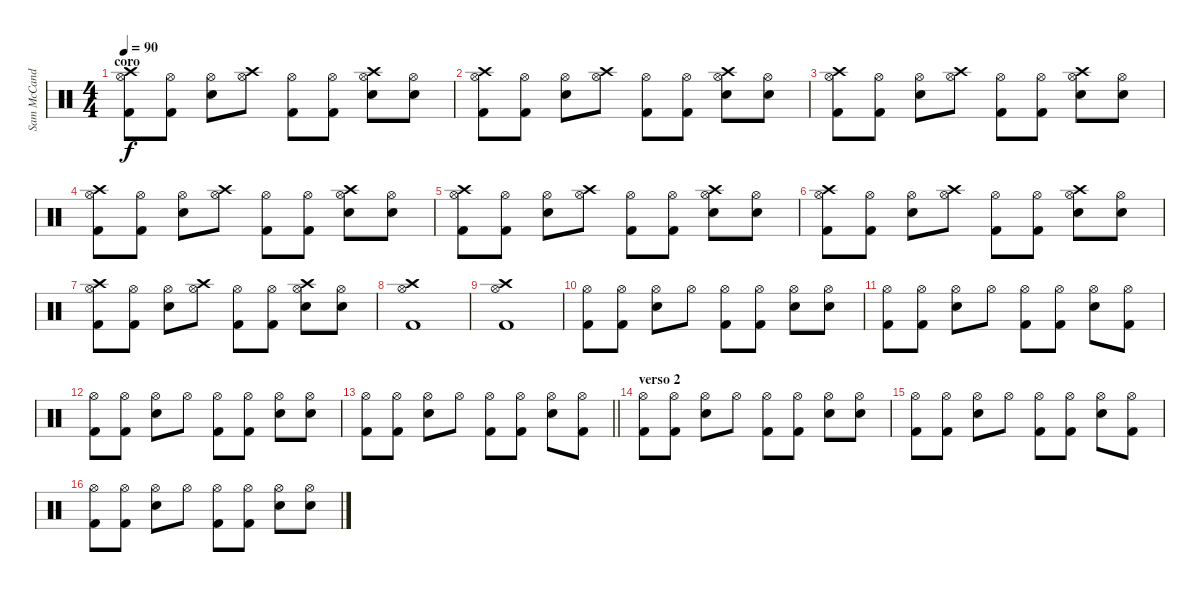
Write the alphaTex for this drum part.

\track ("Sam McCandless" "Sam McCand") {instrument percussion}
\staff {score}
\articulation defaults
\ts (4 4)
\section ("" "coro")
\tempo 90
\clef neutral
\ks c
("Crash high (hit)" "Hi-Hat (open)" "Kick (hit) 2").8{dy f} ("Hi-Hat (open)" "Kick (hit) 2").8 ("Hi-Hat (open)" "Electric Snare (hit)").8 ("Crash high (hit)" "Hi-Hat (open)").8 ("Hi-Hat (open)" "Kick (hit) 2").8 ("Hi-Hat (open)" "Kick (hit) 2").8 ("Crash high (hit)" "Hi-Hat (open)" "Electric Snare (hit)").8 ("Hi-Hat (open)" "Electric Snare (hit)").8 |
("Crash high (hit)" "Hi-Hat (open)" "Kick (hit) 2").8 ("Hi-Hat (open)" "Kick (hit) 2").8 ("Hi-Hat (open)" "Electric Snare (hit)").8 ("Crash high (hit)" "Hi-Hat (open)").8 ("Hi-Hat (open)" "Kick (hit) 2").8 ("Hi-Hat (open)" "Kick (hit) 2").8 ("Crash high (hit)" "Hi-Hat (open)" "Electric Snare (hit)").8 ("Hi-Hat (open)" "Electric Snare (hit)").8 |
("Crash high (hit)" "Hi-Hat (open)" "Kick (hit) 2").8 ("Hi-Hat (open)" "Kick (hit) 2").8 ("Hi-Hat (open)" "Electric Snare (hit)").8 ("Crash high (hit)" "Hi-Hat (open)").8 ("Hi-Hat (open)" "Kick (hit) 2").8 ("Hi-Hat (open)" "Kick (hit) 2").8 ("Crash high (hit)" "Hi-Hat (open)" "Electric Snare (hit)").8 ("Hi-Hat (open)" "Electric Snare (hit)").8 |
("Crash high (hit)" "Hi-Hat (open)" "Kick (hit) 2").8 ("Hi-Hat (open)" "Kick (hit) 2").8 ("Hi-Hat (open)" "Electric Snare (hit)").8 ("Crash high (hit)" "Hi-Hat (open)").8 ("Hi-Hat (open)" "Kick (hit) 2").8 ("Hi-Hat (open)" "Kick (hit) 2").8 ("Crash high (hit)" "Hi-Hat (open)" "Electric Snare (hit)").8 ("Hi-Hat (open)" "Electric Snare (hit)").8 |
("Crash high (hit)" "Hi-Hat (open)" "Kick (hit) 2").8 ("Hi-Hat (open)" "Kick (hit) 2").8 ("Hi-Hat (open)" "Electric Snare (hit)").8 ("Crash high (hit)" "Hi-Hat (open)").8 ("Hi-Hat (open)" "Kick (hit) 2").8 ("Hi-Hat (open)" "Kick (hit) 2").8 ("Crash high (hit)" "Hi-Hat (open)" "Electric Snare (hit)").8 ("Hi-Hat (open)" "Electric Snare (hit)").8 |
("Crash high (hit)" "Hi-Hat (open)" "Kick (hit) 2").8 ("Hi-Hat (open)" "Kick (hit) 2").8 ("Hi-Hat (open)" "Electric Snare (hit)").8 ("Crash high (hit)" "Hi-Hat (open)").8 ("Hi-Hat (open)" "Kick (hit) 2").8 ("Hi-Hat (open)" "Kick (hit) 2").8 ("Crash high (hit)" "Hi-Hat (open)" "Electric Snare (hit)").8 ("Hi-Hat (open)" "Electric Snare (hit)").8 |
("Crash high (hit)" "Hi-Hat (open)" "Kick (hit) 2").8 ("Hi-Hat (open)" "Kick (hit) 2").8 ("Hi-Hat (open)" "Electric Snare (hit)").8 ("Crash high (hit)" "Hi-Hat (open)").8 ("Hi-Hat (open)" "Kick (hit) 2").8 ("Hi-Hat (open)" "Kick (hit) 2").8 ("Crash high (hit)" "Hi-Hat (open)" "Electric Snare (hit)").8 ("Hi-Hat (open)" "Electric Snare (hit)").8 |
("Crash high (hit)" "Hi-Hat (open)" "Kick (hit) 2").1 |
("Crash high (hit)" "Hi-Hat (open)" "Kick (hit) 2").1 |
("Hi-Hat (open)" "Kick (hit) 2").8 ("Hi-Hat (open)" "Kick (hit) 2").8 ("Hi-Hat (open)" "Electric Snare (hit)").8 "Hi-Hat (open)".8 ("Hi-Hat (open)" "Kick (hit) 2").8 ("Hi-Hat (open)" "Kick (hit) 2").8 ("Hi-Hat (open)" "Electric Snare (hit)").8 ("Hi-Hat (open)" "Electric Snare (hit)").8 |
("Hi-Hat (open)" "Kick (hit) 2").8 ("Hi-Hat (open)" "Kick (hit) 2").8 ("Hi-Hat (open)" "Electric Snare (hit)").8 "Hi-Hat (open)".8 ("Hi-Hat (open)" "Kick (hit) 2").8 ("Hi-Hat (open)" "Kick (hit) 2").8 ("Hi-Hat (open)" "Electric Snare (hit)").8 ("Hi-Hat (open)" "Kick (hit) 2").8 |
("Hi-Hat (open)" "Kick (hit) 2").8 ("Hi-Hat (open)" "Kick (hit) 2").8 ("Hi-Hat (open)" "Electric Snare (hit)").8 "Hi-Hat (open)".8 ("Hi-Hat (open)" "Kick (hit) 2").8 ("Hi-Hat (open)" "Kick (hit) 2").8 ("Hi-Hat (open)" "Electric Snare (hit)").8 ("Hi-Hat (open)" "Electric Snare (hit)").8 |
\barLineRight lightlight
("Hi-Hat (open)" "Kick (hit) 2").8 ("Hi-Hat (open)" "Kick (hit) 2").8 ("Hi-Hat (open)" "Electric Snare (hit)").8 "Hi-Hat (open)".8 ("Hi-Hat (open)" "Kick (hit) 2").8 ("Hi-Hat (open)" "Kick (hit) 2").8 ("Hi-Hat (open)" "Electric Snare (hit)").8 ("Hi-Hat (open)" "Kick (hit) 2").8 |
\section ("" "verso 2")
("Hi-Hat (open)" "Kick (hit) 2").8 ("Hi-Hat (open)" "Kick (hit) 2").8 ("Hi-Hat (open)" "Electric Snare (hit)").8 "Hi-Hat (open)".8 ("Hi-Hat (open)" "Kick (hit) 2").8 ("Hi-Hat (open)" "Kick (hit) 2").8 ("Hi-Hat (open)" "Electric Snare (hit)").8 ("Hi-Hat (open)" "Electric Snare (hit)").8 |
("Hi-Hat (open)" "Kick (hit) 2").8 ("Hi-Hat (open)" "Kick (hit) 2").8 ("Hi-Hat (open)" "Electric Snare (hit)").8 "Hi-Hat (open)".8 ("Hi-Hat (open)" "Kick (hit) 2").8 ("Hi-Hat (open)" "Kick (hit) 2").8 ("Hi-Hat (open)" "Electric Snare (hit)").8 ("Hi-Hat (open)" "Kick (hit) 2").8 |
("Hi-Hat (open)" "Kick (hit) 2").8 ("Hi-Hat (open)" "Kick (hit) 2").8 ("Hi-Hat (open)" "Electric Snare (hit)").8 "Hi-Hat (open)".8 ("Hi-Hat (open)" "Kick (hit) 2").8 ("Hi-Hat (open)" "Kick (hit) 2").8 ("Hi-Hat (open)" "Electric Snare (hit)").8 ("Hi-Hat (open)" "Electric Snare (hit)").8
